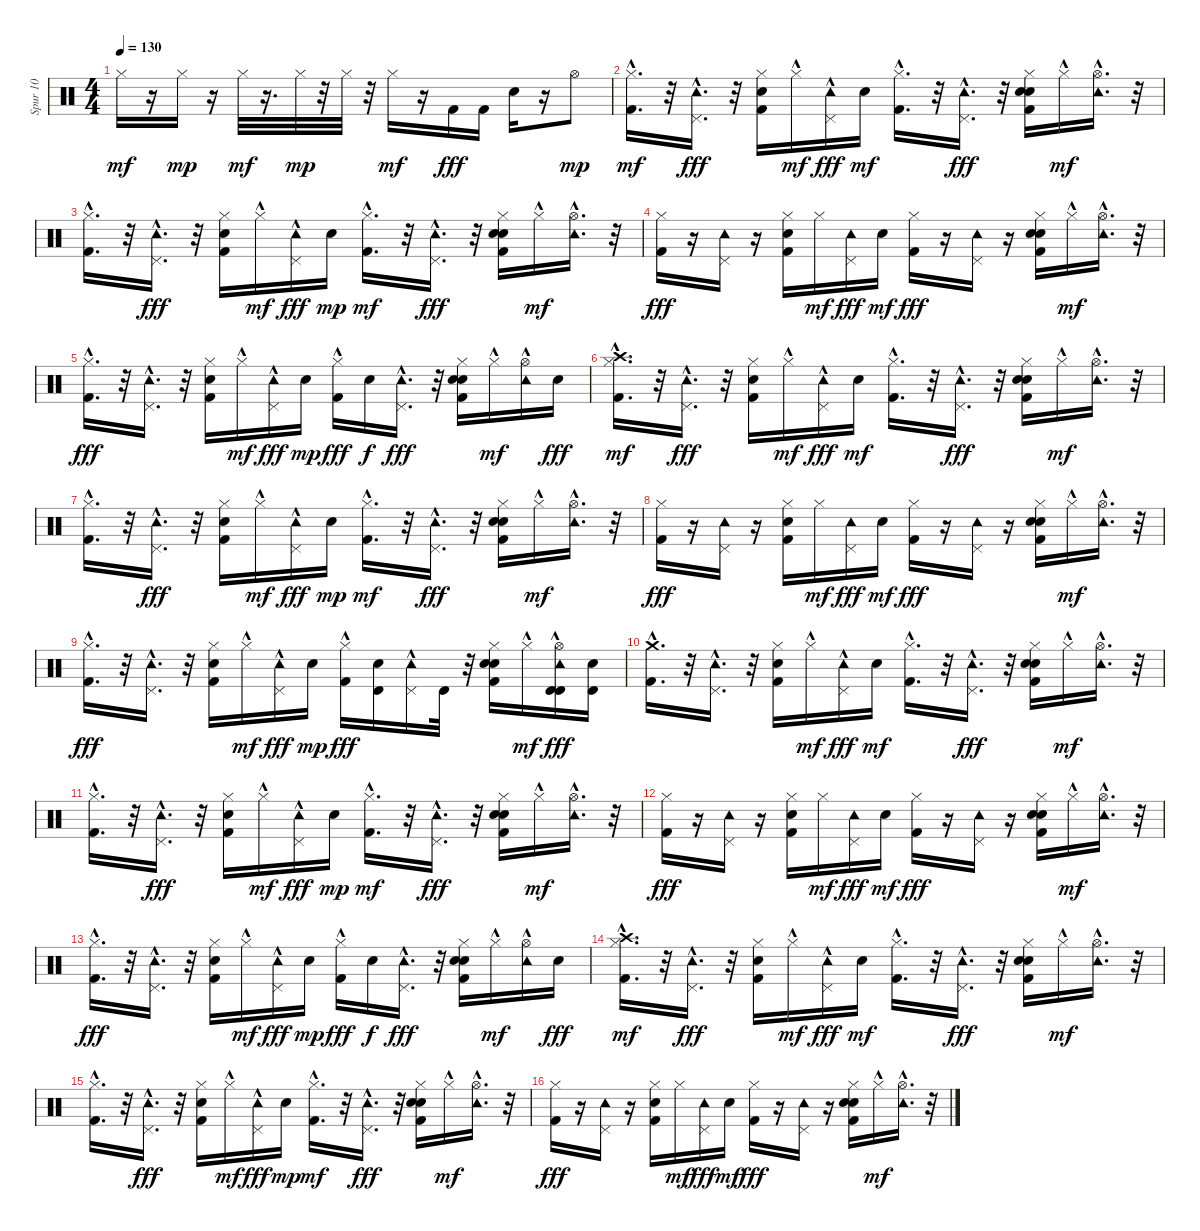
\track ("Spur 10" "Spur 10") {instrument percussion}
\staff {score}
\articulation defaults
\ts (4 4)
\tempo 130
\clef neutral
\ks c "Hi-Hat (closed)".16{dy mf}
r.16 "Hi-Hat (closed)".16{dy mp} r.16 "Hi-Hat (closed)".32{dy mf} r.16{d} "Hi-Hat (closed)".32{dy mp} r.32 "Hi-Hat (closed)".32 r.32 "Hi-Hat (closed)".16{dy mf} r.16 "Kick (hit) 2".16{dy fff} "Kick (hit) 2".16 "Snare (hit) 2".16 r.16 "Hi-Hat (open)".8{dy mp} |
("Kick (hit) 2" "Hi-Hat (closed)"{hac}).16{d dy mf} r.32 ("Tambourine (hit)"{hac} "Pedal Hi-Hat (hit)"{hac}).16{d dy fff} r.32 ("Kick (hit) 2" "Hi-Hat (closed)" "Snare (hit) 2").16 "Hi-Hat (closed)"{hac}.16{dy mf} ("Tambourine (hit)"{hac} "Pedal Hi-Hat (hit)"{hac}).16{dy fff} "Electric Snare (hit)".16{dy mf} ("Kick (hit) 2" "Hi-Hat (closed)"{hac}).16{d} r.32 ("Tambourine (hit)"{hac} "Pedal Hi-Hat (hit)"{hac}).16{d dy fff} r.32 ("Kick (hit) 2" "Hi-Hat (closed)" "Hand Clap (hit)" "Snare (hit) 2").16 "Hi-Hat (closed)"{hac}.16{dy mf} ("Tambourine (hit)"{hac} "Hi-Hat (open)"{hac}).16{d} r.32 |
("Kick (hit) 2" "Hi-Hat (closed)"{hac}).16{d} r.32 ("Tambourine (hit)"{hac} "Pedal Hi-Hat (hit)"{hac}).16{d dy fff} r.32 ("Hi-Hat (closed)" "Snare (hit) 2" "Kick (hit) 2").16 "Hi-Hat (closed)"{hac}.16{dy mf} ("Tambourine (hit)"{hac} "Pedal Hi-Hat (hit)"{hac}).16{dy fff} "Electric Snare (hit)".16{dy mp} ("Kick (hit) 2" "Hi-Hat (closed)"{hac}).16{d dy mf} r.32 ("Tambourine (hit)"{hac} "Pedal Hi-Hat (hit)"{hac}).16{d dy fff} r.32 ("Hi-Hat (closed)" "Kick (hit) 2" "Snare (hit) 2" "Hand Clap (hit)").16 "Hi-Hat (closed)"{hac}.16{dy mf} ("Tambourine (hit)"{hac} "Hi-Hat (open)"{hac}).16{d} r.32 |
("Hi-Hat (closed)" "Kick (hit) 2").16{dy fff} r.16 ("Tambourine (hit)" "Pedal Hi-Hat (hit)").16 r.16 ("Snare (hit) 2" "Hi-Hat (closed)" "Kick (hit) 2").16 "Hi-Hat (closed)".16{dy mf} ("Tambourine (hit)" "Pedal Hi-Hat (hit)").16{dy fff} "Electric Snare (hit)".16{dy mf} ("Hi-Hat (closed)" "Kick (hit) 2").16{dy fff} r.16 ("Tambourine (hit)" "Pedal Hi-Hat (hit)").16 r.16 ("Snare (hit) 2" "Hand Clap (hit)" "Hi-Hat (closed)" "Kick (hit) 2").16 "Hi-Hat (closed)"{hac}.16{dy mf} ("Tambourine (hit)" "Hi-Hat (open)"{hac}).16{d} r.32 |
("Hi-Hat (closed)"{hac} "Kick (hit) 2").16{d dy fff} r.32 ("Tambourine (hit)"{hac} "Pedal Hi-Hat (hit)"{hac}).16{d} r.32 ("Hi-Hat (closed)" "Snare (hit) 2" "Kick (hit) 2").16 "Hi-Hat (closed)"{hac}.16{dy mf} ("Tambourine (hit)"{hac} "Pedal Hi-Hat (hit)"{hac}).16{dy fff} "Electric Snare (hit)".16{dy mp} ("Hi-Hat (closed)"{hac} "Kick (hit) 2").16{dy fff} "Snare (hit) 2".16{dy f} ("Tambourine (hit)"{hac} "Pedal Hi-Hat (hit)"{hac}).16{d dy fff} r.32 ("Hand Clap (hit)" "Snare (hit) 2" "Hi-Hat (closed)" "Kick (hit) 2").16 "Hi-Hat (closed)"{hac}.16{dy mf} ("Tambourine (hit)"{hac} "Hi-Hat (open)"{hac}).16 "Snare (hit) 2".16{dy fff} |
("Crash high (hit)" "Kick (hit) 2" "Hi-Hat (closed)"{hac}).16{d dy mf} r.32 ("Tambourine (hit)"{hac} "Pedal Hi-Hat (hit)"{hac}).16{d dy fff} r.32 ("Kick (hit) 2" "Hi-Hat (closed)" "Snare (hit) 2").16 "Hi-Hat (closed)"{hac}.16{dy mf} ("Tambourine (hit)"{hac} "Pedal Hi-Hat (hit)"{hac}).16{dy fff} "Electric Snare (hit)".16{dy mf} ("Kick (hit) 2" "Hi-Hat (closed)"{hac}).16{d} r.32 ("Tambourine (hit)"{hac} "Pedal Hi-Hat (hit)"{hac}).16{d dy fff} r.32 ("Kick (hit) 2" "Hi-Hat (closed)" "Hand Clap (hit)" "Snare (hit) 2").16 "Hi-Hat (closed)"{hac}.16{dy mf} ("Tambourine (hit)"{hac} "Hi-Hat (open)"{hac}).16{d} r.32 |
("Kick (hit) 2" "Hi-Hat (closed)"{hac}).16{d} r.32 ("Tambourine (hit)"{hac} "Pedal Hi-Hat (hit)"{hac}).16{d dy fff} r.32 ("Hi-Hat (closed)" "Snare (hit) 2" "Kick (hit) 2").16 "Hi-Hat (closed)"{hac}.16{dy mf} ("Tambourine (hit)"{hac} "Pedal Hi-Hat (hit)"{hac}).16{dy fff} "Electric Snare (hit)".16{dy mp} ("Kick (hit) 2" "Hi-Hat (closed)"{hac}).16{d dy mf} r.32 ("Tambourine (hit)"{hac} "Pedal Hi-Hat (hit)"{hac}).16{d dy fff} r.32 ("Hi-Hat (closed)" "Kick (hit) 2" "Snare (hit) 2" "Hand Clap (hit)").16 "Hi-Hat (closed)"{hac}.16{dy mf} ("Tambourine (hit)"{hac} "Hi-Hat (open)"{hac}).16{d} r.32 |
("Hi-Hat (closed)" "Kick (hit) 2").16{dy fff} r.16 ("Tambourine (hit)" "Pedal Hi-Hat (hit)").16 r.16 ("Snare (hit) 2" "Hi-Hat (closed)" "Kick (hit) 2").16 "Hi-Hat (closed)".16{dy mf} ("Tambourine (hit)" "Pedal Hi-Hat (hit)").16{dy fff} "Electric Snare (hit)".16{dy mf} ("Hi-Hat (closed)" "Kick (hit) 2").16{dy fff} r.16 ("Tambourine (hit)" "Pedal Hi-Hat (hit)").16 r.16 ("Snare (hit) 2" "Hand Clap (hit)" "Hi-Hat (closed)" "Kick (hit) 2").16 "Hi-Hat (closed)"{hac}.16{dy mf} ("Tambourine (hit)" "Hi-Hat (open)"{hac}).16{d} r.32 |
("Hi-Hat (closed)"{hac} "Kick (hit) 2").16{d dy fff} r.32 ("Tambourine (hit)"{hac} "Pedal Hi-Hat (hit)"{hac}).16{d} r.32 ("Hi-Hat (closed)" "Snare (hit) 2" "Kick (hit) 2").16 "Hi-Hat (closed)"{hac}.16{dy mf} ("Tambourine (hit)"{hac} "Pedal Hi-Hat (hit)"{hac}).16{dy fff} "Electric Snare (hit)".16{dy mp} ("Hi-Hat (closed)"{hac} "Kick (hit) 2").16{dy fff} ("Snare (hit) 2" "Timbale high (hit)").16 ("Tambourine (hit)"{hac} "Pedal Hi-Hat (hit)"{hac}).16 "Timbale high (hit)".32 r.32 ("Hand Clap (hit)" "Snare (hit) 2" "Hi-Hat (closed)" "Kick (hit) 2").16 "Hi-Hat (closed)"{hac}.16{dy mf} ("Timbale high (hit)" "Tambourine (hit)"{hac} "Hi-Hat (open)"{hac} "Timbale high (hit)").16{dy fff} ("Snare (hit) 2" "Timbale high (hit)").16 |
("Crash medium (hit)"{hac} "Kick (hit) 2").16{d} r.32 ("Tambourine (hit)"{hac} "Pedal Hi-Hat (hit)"{hac}).16{d} r.32 ("Kick (hit) 2" "Hi-Hat (closed)" "Snare (hit) 2").16 "Hi-Hat (closed)"{hac}.16{dy mf} ("Tambourine (hit)"{hac} "Pedal Hi-Hat (hit)"{hac}).16{dy fff} "Electric Snare (hit)".16{dy mf} ("Kick (hit) 2" "Hi-Hat (closed)"{hac}).16{d} r.32 ("Tambourine (hit)"{hac} "Pedal Hi-Hat (hit)"{hac}).16{d dy fff} r.32 ("Kick (hit) 2" "Hi-Hat (closed)" "Hand Clap (hit)" "Snare (hit) 2").16 "Hi-Hat (closed)"{hac}.16{dy mf} ("Tambourine (hit)"{hac} "Hi-Hat (open)"{hac}).16{d} r.32 |
("Kick (hit) 2" "Hi-Hat (closed)"{hac}).16{d} r.32 ("Tambourine (hit)"{hac} "Pedal Hi-Hat (hit)"{hac}).16{d dy fff} r.32 ("Hi-Hat (closed)" "Snare (hit) 2" "Kick (hit) 2").16 "Hi-Hat (closed)"{hac}.16{dy mf} ("Tambourine (hit)"{hac} "Pedal Hi-Hat (hit)"{hac}).16{dy fff} "Electric Snare (hit)".16{dy mp} ("Kick (hit) 2" "Hi-Hat (closed)"{hac}).16{d dy mf} r.32 ("Tambourine (hit)"{hac} "Pedal Hi-Hat (hit)"{hac}).16{d dy fff} r.32 ("Hi-Hat (closed)" "Kick (hit) 2" "Snare (hit) 2" "Hand Clap (hit)").16 "Hi-Hat (closed)"{hac}.16{dy mf} ("Tambourine (hit)"{hac} "Hi-Hat (open)"{hac}).16{d} r.32 |
("Hi-Hat (closed)" "Kick (hit) 2").16{dy fff} r.16 ("Tambourine (hit)" "Pedal Hi-Hat (hit)").16 r.16 ("Snare (hit) 2" "Hi-Hat (closed)" "Kick (hit) 2").16 "Hi-Hat (closed)".16{dy mf} ("Tambourine (hit)" "Pedal Hi-Hat (hit)").16{dy fff} "Electric Snare (hit)".16{dy mf} ("Hi-Hat (closed)" "Kick (hit) 2").16{dy fff} r.16 ("Tambourine (hit)" "Pedal Hi-Hat (hit)").16 r.16 ("Snare (hit) 2" "Hand Clap (hit)" "Hi-Hat (closed)" "Kick (hit) 2").16 "Hi-Hat (closed)"{hac}.16{dy mf} ("Tambourine (hit)" "Hi-Hat (open)"{hac}).16{d} r.32 |
("Hi-Hat (closed)"{hac} "Kick (hit) 2").16{d dy fff} r.32 ("Tambourine (hit)"{hac} "Pedal Hi-Hat (hit)"{hac}).16{d} r.32 ("Hi-Hat (closed)" "Snare (hit) 2" "Kick (hit) 2").16 "Hi-Hat (closed)"{hac}.16{dy mf} ("Tambourine (hit)"{hac} "Pedal Hi-Hat (hit)"{hac}).16{dy fff} "Electric Snare (hit)".16{dy mp} ("Hi-Hat (closed)"{hac} "Kick (hit) 2").16{dy fff} "Snare (hit) 2".16{dy f} ("Tambourine (hit)"{hac} "Pedal Hi-Hat (hit)"{hac}).16{d dy fff} r.32 ("Hand Clap (hit)" "Snare (hit) 2" "Hi-Hat (closed)" "Kick (hit) 2").16 "Hi-Hat (closed)"{hac}.16{dy mf} ("Tambourine (hit)"{hac} "Hi-Hat (open)"{hac}).16 "Snare (hit) 2".16{dy fff} |
("Crash high (hit)" "Kick (hit) 2" "Hi-Hat (closed)"{hac}).16{d dy mf} r.32 ("Tambourine (hit)"{hac} "Pedal Hi-Hat (hit)"{hac}).16{d dy fff} r.32 ("Kick (hit) 2" "Hi-Hat (closed)" "Snare (hit) 2").16 "Hi-Hat (closed)"{hac}.16{dy mf} ("Tambourine (hit)"{hac} "Pedal Hi-Hat (hit)"{hac}).16{dy fff} "Electric Snare (hit)".16{dy mf} ("Kick (hit) 2" "Hi-Hat (closed)"{hac}).16{d} r.32 ("Tambourine (hit)"{hac} "Pedal Hi-Hat (hit)"{hac}).16{d dy fff} r.32 ("Kick (hit) 2" "Hi-Hat (closed)" "Hand Clap (hit)" "Snare (hit) 2").16 "Hi-Hat (closed)"{hac}.16{dy mf} ("Tambourine (hit)"{hac} "Hi-Hat (open)"{hac}).16{d} r.32 |
("Kick (hit) 2" "Hi-Hat (closed)"{hac}).16{d} r.32 ("Tambourine (hit)"{hac} "Pedal Hi-Hat (hit)"{hac}).16{d dy fff} r.32 ("Hi-Hat (closed)" "Snare (hit) 2" "Kick (hit) 2").16 "Hi-Hat (closed)"{hac}.16{dy mf} ("Tambourine (hit)"{hac} "Pedal Hi-Hat (hit)"{hac}).16{dy fff} "Electric Snare (hit)".16{dy mp} ("Kick (hit) 2" "Hi-Hat (closed)"{hac}).16{d dy mf} r.32 ("Tambourine (hit)"{hac} "Pedal Hi-Hat (hit)"{hac}).16{d dy fff} r.32 ("Hi-Hat (closed)" "Kick (hit) 2" "Snare (hit) 2" "Hand Clap (hit)").16 "Hi-Hat (closed)"{hac}.16{dy mf} ("Tambourine (hit)"{hac} "Hi-Hat (open)"{hac}).16{d} r.32 |
("Hi-Hat (closed)" "Kick (hit) 2").16{dy fff} r.16 ("Tambourine (hit)" "Pedal Hi-Hat (hit)").16 r.16 ("Snare (hit) 2" "Hi-Hat (closed)" "Kick (hit) 2").16 "Hi-Hat (closed)".16{dy mf} ("Tambourine (hit)" "Pedal Hi-Hat (hit)").16{dy fff} "Electric Snare (hit)".16{dy mf} ("Hi-Hat (closed)" "Kick (hit) 2").16{dy fff} r.16 ("Tambourine (hit)" "Pedal Hi-Hat (hit)").16 r.16 ("Snare (hit) 2" "Hand Clap (hit)" "Hi-Hat (closed)" "Kick (hit) 2").16 "Hi-Hat (closed)"{hac}.16{dy mf} ("Tambourine (hit)" "Hi-Hat (open)"{hac}).16{d} r.32
